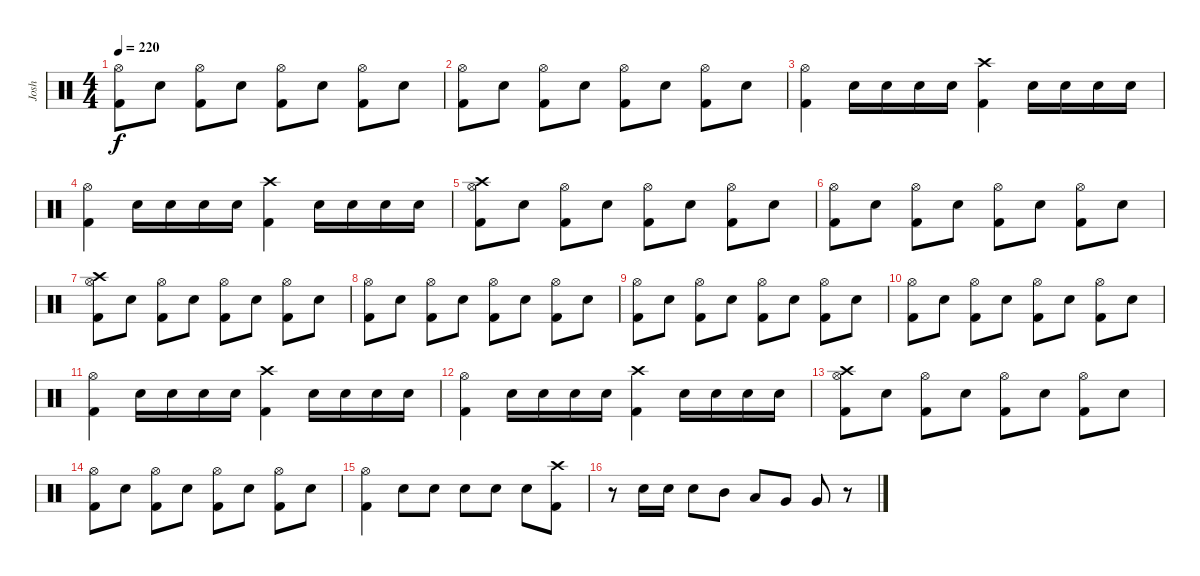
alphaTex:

\track ("Josh" "Josh") {instrument percussion}
\staff {score}
\articulation defaults
\ts (4 4)
\tempo 220
\clef neutral
\ks c
("Hi-Hat (open)" "Kick (hit) 2").8{dy f} "Snare (hit) 2".8 ("Hi-Hat (open)" "Kick (hit) 2").8 "Snare (hit) 2".8 ("Hi-Hat (open)" "Kick (hit) 2").8 "Snare (hit) 2".8 ("Hi-Hat (open)" "Kick (hit) 2").8 "Snare (hit) 2".8 |
("Hi-Hat (open)" "Kick (hit) 2").8 "Snare (hit) 2".8 ("Hi-Hat (open)" "Kick (hit) 2").8 "Snare (hit) 2".8 ("Hi-Hat (open)" "Kick (hit) 2").8 "Snare (hit) 2".8 ("Hi-Hat (open)" "Kick (hit) 2").8 "Snare (hit) 2".8 |
("Hi-Hat (open)" "Kick (hit) 2").4 "Snare (hit) 2".16 "Snare (hit) 2".16 "Snare (hit) 2".16 "Snare (hit) 2".16 ("Crash high (hit)" "Kick (hit) 2").4 "Snare (hit) 2".16 "Snare (hit) 2".16 "Snare (hit) 2".16 "Snare (hit) 2".16 |
("Hi-Hat (open)" "Kick (hit) 2").4 "Snare (hit) 2".16 "Snare (hit) 2".16 "Snare (hit) 2".16 "Snare (hit) 2".16 ("Crash high (hit)" "Kick (hit) 2").4 "Snare (hit) 2".16 "Snare (hit) 2".16 "Snare (hit) 2".16 "Snare (hit) 2".16 |
("Crash high (hit)" "Hi-Hat (open)" "Kick (hit) 2").8 "Snare (hit) 2".8 ("Hi-Hat (open)" "Kick (hit) 2").8 "Snare (hit) 2".8 ("Hi-Hat (open)" "Kick (hit) 2").8 "Snare (hit) 2".8 ("Hi-Hat (open)" "Kick (hit) 2").8 "Snare (hit) 2".8 |
("Hi-Hat (open)" "Kick (hit) 2").8 "Snare (hit) 2".8 ("Hi-Hat (open)" "Kick (hit) 2").8 "Snare (hit) 2".8 ("Hi-Hat (open)" "Kick (hit) 2").8 "Snare (hit) 2".8 ("Hi-Hat (open)" "Kick (hit) 2").8 "Snare (hit) 2".8 |
("Crash high (hit)" "Hi-Hat (open)" "Kick (hit) 2").8 "Snare (hit) 2".8 ("Hi-Hat (open)" "Kick (hit) 2").8 "Snare (hit) 2".8 ("Hi-Hat (open)" "Kick (hit) 2").8 "Snare (hit) 2".8 ("Hi-Hat (open)" "Kick (hit) 2").8 "Snare (hit) 2".8 |
("Hi-Hat (open)" "Kick (hit) 2").8 "Snare (hit) 2".8 ("Hi-Hat (open)" "Kick (hit) 2").8 "Snare (hit) 2".8 ("Hi-Hat (open)" "Kick (hit) 2").8 "Snare (hit) 2".8 ("Hi-Hat (open)" "Kick (hit) 2").8 "Snare (hit) 2".8 |
("Hi-Hat (open)" "Kick (hit) 2").8 "Snare (hit) 2".8 ("Hi-Hat (open)" "Kick (hit) 2").8 "Snare (hit) 2".8 ("Hi-Hat (open)" "Kick (hit) 2").8 "Snare (hit) 2".8 ("Hi-Hat (open)" "Kick (hit) 2").8 "Snare (hit) 2".8 |
("Hi-Hat (open)" "Kick (hit) 2").8 "Snare (hit) 2".8 ("Hi-Hat (open)" "Kick (hit) 2").8 "Snare (hit) 2".8 ("Hi-Hat (open)" "Kick (hit) 2").8 "Snare (hit) 2".8 ("Hi-Hat (open)" "Kick (hit) 2").8 "Snare (hit) 2".8 |
("Hi-Hat (open)" "Kick (hit) 2").4 "Snare (hit) 2".16 "Snare (hit) 2".16 "Snare (hit) 2".16 "Snare (hit) 2".16 ("Crash high (hit)" "Kick (hit) 2").4 "Snare (hit) 2".16 "Snare (hit) 2".16 "Snare (hit) 2".16 "Snare (hit) 2".16 |
("Hi-Hat (open)" "Kick (hit) 2").4 "Snare (hit) 2".16 "Snare (hit) 2".16 "Snare (hit) 2".16 "Snare (hit) 2".16 ("Crash high (hit)" "Kick (hit) 2").4 "Snare (hit) 2".16 "Snare (hit) 2".16 "Snare (hit) 2".16 "Snare (hit) 2".16 |
("Crash high (hit)" "Hi-Hat (open)" "Kick (hit) 2").8 "Snare (hit) 2".8 ("Hi-Hat (open)" "Kick (hit) 2").8 "Snare (hit) 2".8 ("Hi-Hat (open)" "Kick (hit) 2").8 "Snare (hit) 2".8 ("Hi-Hat (open)" "Kick (hit) 2").8 "Snare (hit) 2".8 |
("Hi-Hat (open)" "Kick (hit) 2").8 "Snare (hit) 2".8 ("Hi-Hat (open)" "Kick (hit) 2").8 "Snare (hit) 2".8 ("Hi-Hat (open)" "Kick (hit) 2").8 "Snare (hit) 2".8 ("Hi-Hat (open)" "Kick (hit) 2").8 "Snare (hit) 2".8 |
("Hi-Hat (open)" "Kick (hit) 2").4 "Snare (hit) 2".8 "Snare (hit) 2".8 "Snare (hit) 2".8 "Snare (hit) 2".8 "Snare (hit) 2".8 ("Crash high (hit)" "Kick (hit) 2").8 |
r.8 "Snare (hit) 2".16 "Snare (hit) 2".16 "Snare (hit) 2".8 "Mid Tom (hit)".8 "Low Tom (hit)".8 "Very Low Tom (hit)".8 "Very Low Tom (hit)".8 r.8
